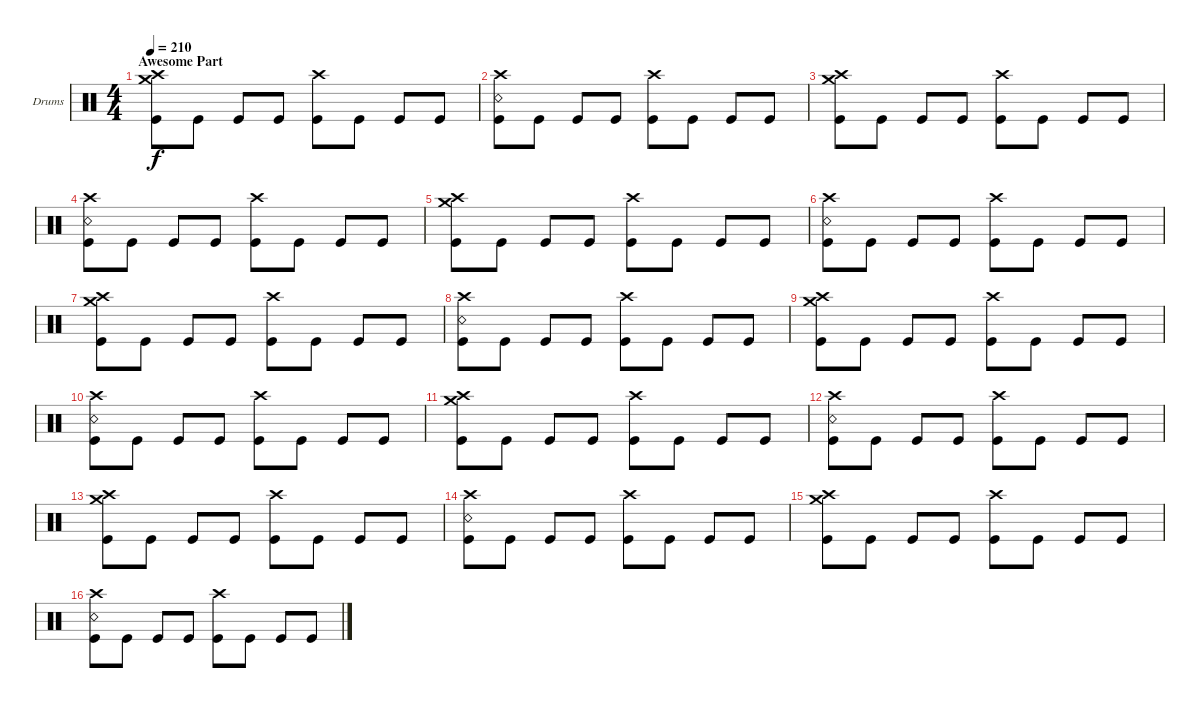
\defaultSystemsLayout 4
\bracketExtendMode groupsimilarinstruments
\firstSystemTrackNameOrientation horizontal
\otherSystemsTrackNameOrientation horizontal
\track ("Drums" "Drums") {instrument percussion}
\staff {score}
\articulation defaults
\ts (4 4)
\section ("" "Awesome Part")
\tempo 210
\clef neutral
\ks c
("Crash high (hit)" "Kick (hit)" "Crash medium (hit)").8{dy f} "Kick (hit)".8 "Kick (hit)".8 "Kick (hit)".8 ("Kick (hit)" "Crash high (hit)").8 "Kick (hit)".8 "Kick (hit)".8 "Kick (hit)".8 |
("Crash high (hit)" "Kick (hit)" "Snare (rim shot)").8 "Kick (hit)".8 "Kick (hit)".8 "Kick (hit)".8 ("Kick (hit)" "Crash high (hit)").8 "Kick (hit)".8 "Kick (hit)".8 "Kick (hit)".8 |
("Crash high (hit)" "Kick (hit)" "Crash medium (hit)").8 "Kick (hit)".8 "Kick (hit)".8 "Kick (hit)".8 ("Kick (hit)" "Crash high (hit)").8 "Kick (hit)".8 "Kick (hit)".8 "Kick (hit)".8 |
("Crash high (hit)" "Kick (hit)" "Snare (rim shot)").8 "Kick (hit)".8 "Kick (hit)".8 "Kick (hit)".8 ("Kick (hit)" "Crash high (hit)").8 "Kick (hit)".8 "Kick (hit)".8 "Kick (hit)".8 |
("Crash high (hit)" "Kick (hit)" "Crash medium (hit)").8 "Kick (hit)".8 "Kick (hit)".8 "Kick (hit)".8 ("Kick (hit)" "Crash high (hit)").8 "Kick (hit)".8 "Kick (hit)".8 "Kick (hit)".8 |
("Crash high (hit)" "Kick (hit)" "Snare (rim shot)").8 "Kick (hit)".8 "Kick (hit)".8 "Kick (hit)".8 ("Kick (hit)" "Crash high (hit)").8 "Kick (hit)".8 "Kick (hit)".8 "Kick (hit)".8 |
("Crash high (hit)" "Kick (hit)" "Crash medium (hit)").8 "Kick (hit)".8 "Kick (hit)".8 "Kick (hit)".8 ("Kick (hit)" "Crash high (hit)").8 "Kick (hit)".8 "Kick (hit)".8 "Kick (hit)".8 |
("Crash high (hit)" "Kick (hit)" "Snare (rim shot)").8 "Kick (hit)".8 "Kick (hit)".8 "Kick (hit)".8 ("Kick (hit)" "Crash high (hit)").8 "Kick (hit)".8 "Kick (hit)".8 "Kick (hit)".8 |
("Crash high (hit)" "Kick (hit)" "Crash medium (hit)").8 "Kick (hit)".8 "Kick (hit)".8 "Kick (hit)".8 ("Kick (hit)" "Crash high (hit)").8 "Kick (hit)".8 "Kick (hit)".8 "Kick (hit)".8 |
("Crash high (hit)" "Kick (hit)" "Snare (rim shot)").8 "Kick (hit)".8 "Kick (hit)".8 "Kick (hit)".8 ("Kick (hit)" "Crash high (hit)").8 "Kick (hit)".8 "Kick (hit)".8 "Kick (hit)".8 |
("Crash high (hit)" "Kick (hit)" "Crash medium (hit)").8 "Kick (hit)".8 "Kick (hit)".8 "Kick (hit)".8 ("Kick (hit)" "Crash high (hit)").8 "Kick (hit)".8 "Kick (hit)".8 "Kick (hit)".8 |
("Crash high (hit)" "Kick (hit)" "Snare (rim shot)").8 "Kick (hit)".8 "Kick (hit)".8 "Kick (hit)".8 ("Kick (hit)" "Crash high (hit)").8 "Kick (hit)".8 "Kick (hit)".8 "Kick (hit)".8 |
("Crash high (hit)" "Kick (hit)" "Crash medium (hit)").8 "Kick (hit)".8 "Kick (hit)".8 "Kick (hit)".8 ("Kick (hit)" "Crash high (hit)").8 "Kick (hit)".8 "Kick (hit)".8 "Kick (hit)".8 |
("Crash high (hit)" "Kick (hit)" "Snare (rim shot)").8 "Kick (hit)".8 "Kick (hit)".8 "Kick (hit)".8 ("Kick (hit)" "Crash high (hit)").8 "Kick (hit)".8 "Kick (hit)".8 "Kick (hit)".8 |
("Crash high (hit)" "Kick (hit)" "Crash medium (hit)").8 "Kick (hit)".8 "Kick (hit)".8 "Kick (hit)".8 ("Kick (hit)" "Crash high (hit)").8 "Kick (hit)".8 "Kick (hit)".8 "Kick (hit)".8 |
("Crash high (hit)" "Kick (hit)" "Snare (rim shot)").8 "Kick (hit)".8 "Kick (hit)".8 "Kick (hit)".8 ("Kick (hit)" "Crash high (hit)").8 "Kick (hit)".8 "Kick (hit)".8 "Kick (hit)".8
